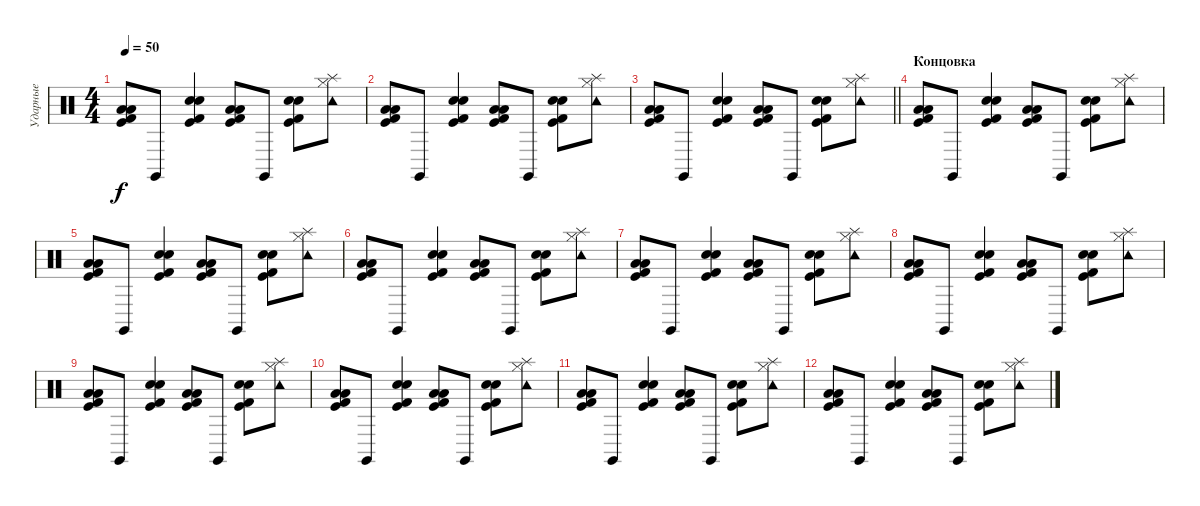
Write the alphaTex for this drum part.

\track ("Ударные" "Ударные") {instrument percussion}
\staff
\articulation defaults
\ts (4 4)
\tempo 50
\clef neutral
\ks c
("Kick (hit) 2" "Low Floor Tom (hit)" "Kick (hit)" "Low Tom (hit)").8{dy f} "Claves (hit)".8 ("Kick (hit) 2" "Electric Snare (hit)" "Kick (hit)" "Snare (hit) 2").4 ("Kick (hit) 2" "Low Floor Tom (hit)" "Kick (hit)" "Low Tom (hit)").8 "Claves (hit)".8 ("Kick (hit) 2" "Electric Snare (hit)" "Kick (hit)" "Snare (hit) 2").8 ("Hi-Hat (closed)" "Splash (hit)" "Tambourine (hit)").8 |
("Kick (hit) 2" "Low Floor Tom (hit)" "Kick (hit)" "Low Tom (hit)").8 "Claves (hit)".8 ("Kick (hit) 2" "Electric Snare (hit)" "Kick (hit)" "Snare (hit) 2").4 ("Kick (hit) 2" "Low Floor Tom (hit)" "Kick (hit)" "Low Tom (hit)").8 "Claves (hit)".8 ("Kick (hit) 2" "Electric Snare (hit)" "Kick (hit)" "Snare (hit) 2").8 ("Hi-Hat (closed)" "Splash (hit)" "Tambourine (hit)").8 |
\barLineRight lightlight
("Kick (hit) 2" "Low Floor Tom (hit)" "Kick (hit)" "Low Tom (hit)").8 "Claves (hit)".8 ("Kick (hit) 2" "Electric Snare (hit)" "Kick (hit)" "Snare (hit) 2").4 ("Kick (hit) 2" "Low Floor Tom (hit)" "Kick (hit)" "Low Tom (hit)").8 "Claves (hit)".8 ("Kick (hit) 2" "Electric Snare (hit)" "Kick (hit)" "Snare (hit) 2").8 ("Hi-Hat (closed)" "Splash (hit)" "Tambourine (hit)").8 |
\section ("" "Концовка")
("Kick (hit) 2" "Low Floor Tom (hit)" "Kick (hit)" "Low Tom (hit)").8 "Claves (hit)".8 ("Kick (hit) 2" "Electric Snare (hit)" "Kick (hit)" "Snare (hit) 2").4 ("Kick (hit) 2" "Low Floor Tom (hit)" "Kick (hit)" "Low Tom (hit)").8 "Claves (hit)".8 ("Kick (hit) 2" "Electric Snare (hit)" "Kick (hit)" "Snare (hit) 2").8 ("Hi-Hat (closed)" "Splash (hit)" "Tambourine (hit)").8 |
("Kick (hit) 2" "Low Floor Tom (hit)" "Kick (hit)" "Low Tom (hit)").8 "Claves (hit)".8 ("Kick (hit) 2" "Electric Snare (hit)" "Kick (hit)" "Snare (hit) 2").4 ("Kick (hit) 2" "Low Floor Tom (hit)" "Kick (hit)" "Low Tom (hit)").8 "Claves (hit)".8 ("Kick (hit) 2" "Electric Snare (hit)" "Kick (hit)" "Snare (hit) 2").8 ("Hi-Hat (closed)" "Splash (hit)" "Tambourine (hit)").8 |
("Kick (hit) 2" "Low Floor Tom (hit)" "Kick (hit)" "Low Tom (hit)").8 "Claves (hit)".8 ("Kick (hit) 2" "Electric Snare (hit)" "Kick (hit)" "Snare (hit) 2").4 ("Kick (hit) 2" "Low Floor Tom (hit)" "Kick (hit)" "Low Tom (hit)").8 "Claves (hit)".8 ("Kick (hit) 2" "Electric Snare (hit)" "Kick (hit)" "Snare (hit) 2").8 ("Hi-Hat (closed)" "Splash (hit)" "Tambourine (hit)").8 |
("Kick (hit) 2" "Low Floor Tom (hit)" "Kick (hit)" "Low Tom (hit)").8 "Claves (hit)".8 ("Kick (hit) 2" "Electric Snare (hit)" "Kick (hit)" "Snare (hit) 2").4 ("Kick (hit) 2" "Low Floor Tom (hit)" "Kick (hit)" "Low Tom (hit)").8 "Claves (hit)".8 ("Kick (hit) 2" "Electric Snare (hit)" "Kick (hit)" "Snare (hit) 2").8 ("Hi-Hat (closed)" "Splash (hit)" "Tambourine (hit)").8 |
("Kick (hit) 2" "Low Floor Tom (hit)" "Kick (hit)" "Low Tom (hit)").8 "Claves (hit)".8 ("Kick (hit) 2" "Electric Snare (hit)" "Kick (hit)" "Snare (hit) 2").4 ("Kick (hit) 2" "Low Floor Tom (hit)" "Kick (hit)" "Low Tom (hit)").8 "Claves (hit)".8 ("Kick (hit) 2" "Electric Snare (hit)" "Kick (hit)" "Snare (hit) 2").8 ("Hi-Hat (closed)" "Splash (hit)" "Tambourine (hit)").8 |
("Kick (hit) 2" "Low Floor Tom (hit)" "Kick (hit)" "Low Tom (hit)").8{volume 8} "Claves (hit)".8 ("Kick (hit) 2" "Electric Snare (hit)" "Kick (hit)" "Snare (hit) 2").4 ("Kick (hit) 2" "Low Floor Tom (hit)" "Kick (hit)" "Low Tom (hit)").8 "Claves (hit)".8 ("Kick (hit) 2" "Electric Snare (hit)" "Kick (hit)" "Snare (hit) 2").8 ("Hi-Hat (closed)" "Splash (hit)" "Tambourine (hit)").8 |
("Kick (hit) 2" "Low Floor Tom (hit)" "Kick (hit)" "Low Tom (hit)").8 "Claves (hit)".8 ("Kick (hit) 2" "Electric Snare (hit)" "Kick (hit)" "Snare (hit) 2").4 ("Kick (hit) 2" "Low Floor Tom (hit)" "Kick (hit)" "Low Tom (hit)").8 "Claves (hit)".8 ("Kick (hit) 2" "Electric Snare (hit)" "Kick (hit)" "Snare (hit) 2").8 ("Hi-Hat (closed)" "Splash (hit)" "Tambourine (hit)").8 |
("Kick (hit) 2" "Low Floor Tom (hit)" "Kick (hit)" "Low Tom (hit)").8{volume 0} "Claves (hit)".8 ("Kick (hit) 2" "Electric Snare (hit)" "Kick (hit)" "Snare (hit) 2").4 ("Kick (hit) 2" "Low Floor Tom (hit)" "Kick (hit)" "Low Tom (hit)").8 "Claves (hit)".8 ("Kick (hit) 2" "Electric Snare (hit)" "Kick (hit)" "Snare (hit) 2").8 ("Hi-Hat (closed)" "Splash (hit)" "Tambourine (hit)").8 |
("Kick (hit) 2" "Low Floor Tom (hit)" "Kick (hit)" "Low Tom (hit)").8 "Claves (hit)".8 ("Kick (hit) 2" "Electric Snare (hit)" "Kick (hit)" "Snare (hit) 2").4 ("Kick (hit) 2" "Low Floor Tom (hit)" "Kick (hit)" "Low Tom (hit)").8 "Claves (hit)".8 ("Kick (hit) 2" "Electric Snare (hit)" "Kick (hit)" "Snare (hit) 2").8 ("Hi-Hat (closed)" "Splash (hit)" "Tambourine (hit)").8
